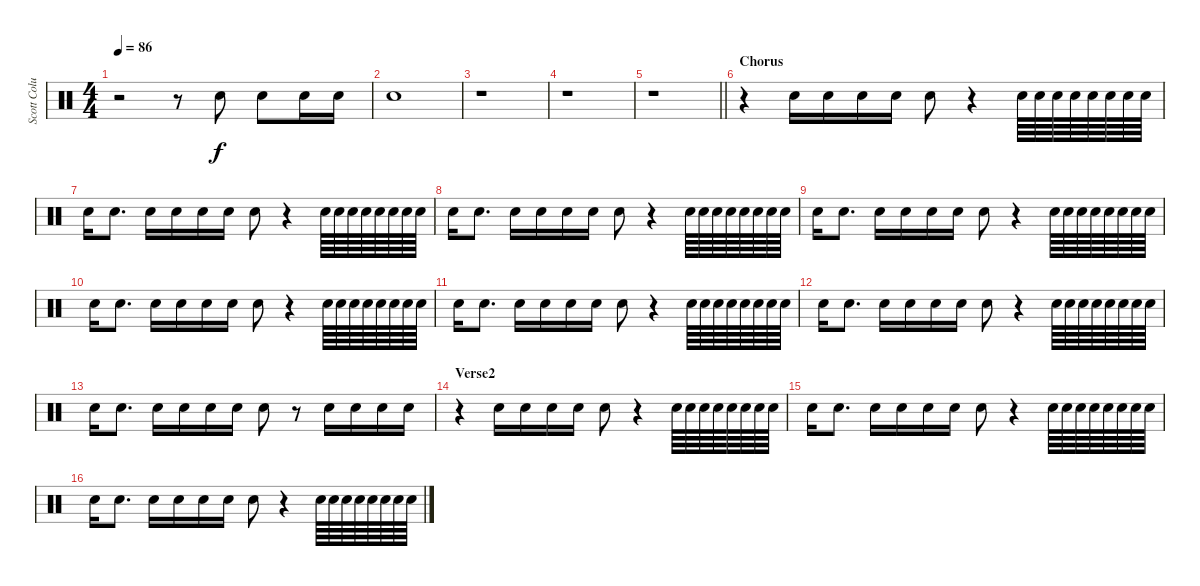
\track ("Scott Columbus - Drums" "Scott Colu") {instrument percussion}
\staff {score}
\articulation defaults
\ts (4 4)
\tempo 86
\clef neutral
\ks c
r.2{dy f} r.8 "Snare (hit) 2".8 "Snare (hit) 2".8 "Snare (hit) 2".16 "Snare (hit) 2".16 |
"Snare (hit) 2".1 |
r.1 |
r.1 |
\barLineRight lightlight
r.1 |
\section ("" "Chorus")
r.4 "Snare (hit) 2".16 "Snare (hit) 2".16 "Snare (hit) 2".16 "Snare (hit) 2".16 "Snare (hit) 2".8 r.4 "Snare (hit) 2".64 "Snare (hit) 2".64 "Snare (hit) 2".64 "Snare (hit) 2".64 "Snare (hit) 2".64 "Snare (hit) 2".64 "Snare (hit) 2".64 "Snare (hit) 2".64 |
"Snare (hit) 2".16 "Snare (hit) 2".8{d} "Snare (hit) 2".16 "Snare (hit) 2".16 "Snare (hit) 2".16 "Snare (hit) 2".16 "Snare (hit) 2".8 r.4 "Snare (hit) 2".64 "Snare (hit) 2".64 "Snare (hit) 2".64 "Snare (hit) 2".64 "Snare (hit) 2".64 "Snare (hit) 2".64 "Snare (hit) 2".64 "Snare (hit) 2".64 |
"Snare (hit) 2".16 "Snare (hit) 2".8{d} "Snare (hit) 2".16 "Snare (hit) 2".16 "Snare (hit) 2".16 "Snare (hit) 2".16 "Snare (hit) 2".8 r.4 "Snare (hit) 2".64 "Snare (hit) 2".64 "Snare (hit) 2".64 "Snare (hit) 2".64 "Snare (hit) 2".64 "Snare (hit) 2".64 "Snare (hit) 2".64 "Snare (hit) 2".64 |
"Snare (hit) 2".16 "Snare (hit) 2".8{d} "Snare (hit) 2".16 "Snare (hit) 2".16 "Snare (hit) 2".16 "Snare (hit) 2".16 "Snare (hit) 2".8 r.4 "Snare (hit) 2".64 "Snare (hit) 2".64 "Snare (hit) 2".64 "Snare (hit) 2".64 "Snare (hit) 2".64 "Snare (hit) 2".64 "Snare (hit) 2".64 "Snare (hit) 2".64 |
"Snare (hit) 2".16 "Snare (hit) 2".8{d} "Snare (hit) 2".16 "Snare (hit) 2".16 "Snare (hit) 2".16 "Snare (hit) 2".16 "Snare (hit) 2".8 r.4 "Snare (hit) 2".64 "Snare (hit) 2".64 "Snare (hit) 2".64 "Snare (hit) 2".64 "Snare (hit) 2".64 "Snare (hit) 2".64 "Snare (hit) 2".64 "Snare (hit) 2".64 |
"Snare (hit) 2".16 "Snare (hit) 2".8{d} "Snare (hit) 2".16 "Snare (hit) 2".16 "Snare (hit) 2".16 "Snare (hit) 2".16 "Snare (hit) 2".8 r.4 "Snare (hit) 2".64 "Snare (hit) 2".64 "Snare (hit) 2".64 "Snare (hit) 2".64 "Snare (hit) 2".64 "Snare (hit) 2".64 "Snare (hit) 2".64 "Snare (hit) 2".64 |
"Snare (hit) 2".16 "Snare (hit) 2".8{d} "Snare (hit) 2".16 "Snare (hit) 2".16 "Snare (hit) 2".16 "Snare (hit) 2".16 "Snare (hit) 2".8 r.4 "Snare (hit) 2".64 "Snare (hit) 2".64 "Snare (hit) 2".64 "Snare (hit) 2".64 "Snare (hit) 2".64 "Snare (hit) 2".64 "Snare (hit) 2".64 "Snare (hit) 2".64 |
"Snare (hit) 2".16 "Snare (hit) 2".8{d} "Snare (hit) 2".16 "Snare (hit) 2".16 "Snare (hit) 2".16 "Snare (hit) 2".16 "Snare (hit) 2".8 r.8 "Snare (hit) 2".16 "Snare (hit) 2".16 "Snare (hit) 2".16 "Snare (hit) 2".16 |
\section ("" "Verse2")
r.4{volume 4} "Snare (hit) 2".16 "Snare (hit) 2".16 "Snare (hit) 2".16 "Snare (hit) 2".16 "Snare (hit) 2".8 r.4 "Snare (hit) 2".64 "Snare (hit) 2".64 "Snare (hit) 2".64 "Snare (hit) 2".64 "Snare (hit) 2".64 "Snare (hit) 2".64 "Snare (hit) 2".64 "Snare (hit) 2".64 |
"Snare (hit) 2".16 "Snare (hit) 2".8{d} "Snare (hit) 2".16 "Snare (hit) 2".16 "Snare (hit) 2".16 "Snare (hit) 2".16 "Snare (hit) 2".8 r.4 "Snare (hit) 2".64 "Snare (hit) 2".64 "Snare (hit) 2".64 "Snare (hit) 2".64 "Snare (hit) 2".64 "Snare (hit) 2".64 "Snare (hit) 2".64 "Snare (hit) 2".64 |
"Snare (hit) 2".16 "Snare (hit) 2".8{d} "Snare (hit) 2".16 "Snare (hit) 2".16 "Snare (hit) 2".16 "Snare (hit) 2".16 "Snare (hit) 2".8 r.4 "Snare (hit) 2".64 "Snare (hit) 2".64 "Snare (hit) 2".64 "Snare (hit) 2".64 "Snare (hit) 2".64 "Snare (hit) 2".64 "Snare (hit) 2".64 "Snare (hit) 2".64
